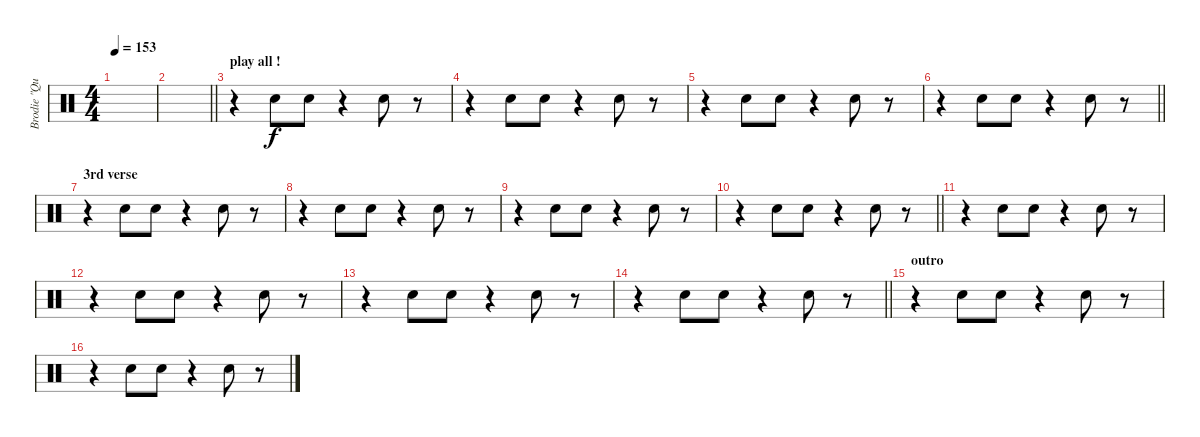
\track ("Brodie \"Queen Be\" Dalle" "Brodie \"Qu") {instrument percussion}
\staff {score}
\articulation defaults
\ts (4 4)
\tempo 153
\clef neutral
\ks c
|
\barLineRight lightlight
|
\section ("" "play all !")
r.4 "Hand Clap (hit)".8 "Hand Clap (hit)".8 r.4 "Hand Clap (hit)".8 r.8 |
r.4 "Hand Clap (hit)".8 "Hand Clap (hit)".8 r.4 "Hand Clap (hit)".8 r.8 |
r.4 "Hand Clap (hit)".8 "Hand Clap (hit)".8 r.4 "Hand Clap (hit)".8 r.8 |
\barLineRight lightlight
r.4 "Hand Clap (hit)".8 "Hand Clap (hit)".8 r.4 "Hand Clap (hit)".8 r.8 |
\section ("" "3rd verse")
r.4 "Hand Clap (hit)".8 "Hand Clap (hit)".8 r.4 "Hand Clap (hit)".8 r.8 |
r.4 "Hand Clap (hit)".8 "Hand Clap (hit)".8 r.4 "Hand Clap (hit)".8 r.8 |
r.4 "Hand Clap (hit)".8 "Hand Clap (hit)".8 r.4 "Hand Clap (hit)".8 r.8 |
\barLineRight lightlight
r.4 "Hand Clap (hit)".8 "Hand Clap (hit)".8 r.4 "Hand Clap (hit)".8 r.8 |
\section ("" "")
r.4 "Hand Clap (hit)".8 "Hand Clap (hit)".8 r.4 "Hand Clap (hit)".8 r.8 |
r.4 "Hand Clap (hit)".8 "Hand Clap (hit)".8 r.4 "Hand Clap (hit)".8 r.8 |
r.4 "Hand Clap (hit)".8 "Hand Clap (hit)".8 r.4 "Hand Clap (hit)".8 r.8 |
\barLineRight lightlight
r.4 "Hand Clap (hit)".8 "Hand Clap (hit)".8 r.4 "Hand Clap (hit)".8 r.8 |
\section ("" "outro")
r.4 "Hand Clap (hit)".8 "Hand Clap (hit)".8 r.4 "Hand Clap (hit)".8 r.8 |
r.4 "Hand Clap (hit)".8 "Hand Clap (hit)".8 r.4 "Hand Clap (hit)".8 r.8
